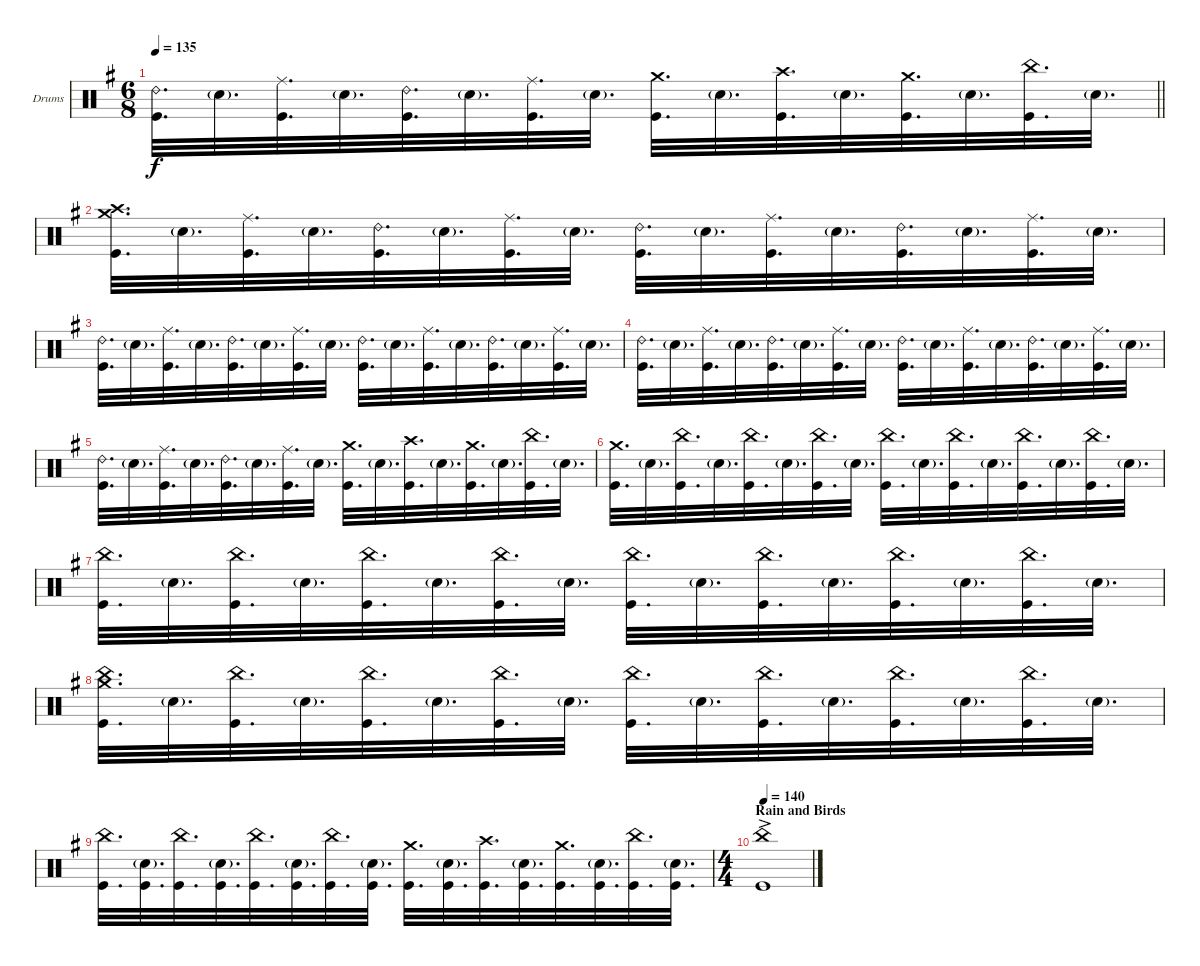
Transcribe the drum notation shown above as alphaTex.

\bracketExtendMode groupsimilarinstruments
\firstSystemTrackNameOrientation horizontal
\otherSystemsTrackNameOrientation horizontal
\track ("Drumkit" "Drums") {instrument percussion}
\staff {score}
\articulation defaults
\ts (6 8)
\tempo 135
\clef neutral
\barLineRight lightlight
\ks eminor
("Kick (hit)" "Ride (bell) 2").32{d dy f} "Snare (hit) 2"{g}.32{d} ("Kick (hit)" "Ride (middle)").32{d} "Snare (hit) 2"{g}.32{d} ("Kick (hit)" "Ride (bell) 2").32{d} "Snare (hit) 2"{g}.32{d} ("Kick (hit)" "Ride (middle)").32{d} "Snare (hit) 2"{g}.32{d} ("Kick (hit)" "Crash medium (hit)").32{d} "Snare (hit) 2"{g}.32{d} ("Kick (hit)" "Crash high (hit)").32{d} "Snare (hit) 2"{g}.32{d} ("Kick (hit)" "Crash medium (hit)").32{d} "Snare (hit) 2"{g}.32{d} ("Kick (hit)" "China (hit)").32{d} "Snare (hit) 2"{g}.32{d} |
("Kick (hit)" "Crash medium (hit)" "Crash high (hit)").32{d} "Snare (hit) 2"{g}.32{d} ("Kick (hit)" "Ride (middle)").32{d} "Snare (hit) 2"{g}.32{d} ("Kick (hit)" "Ride (bell) 2").32{d} "Snare (hit) 2"{g}.32{d} ("Kick (hit)" "Ride (middle)").32{d} "Snare (hit) 2"{g}.32{d} ("Kick (hit)" "Ride (bell) 2").32{d} "Snare (hit) 2"{g}.32{d} ("Kick (hit)" "Ride (middle)").32{d} "Snare (hit) 2"{g}.32{d} ("Kick (hit)" "Ride (bell) 2").32{d} "Snare (hit) 2"{g}.32{d} ("Kick (hit)" "Ride (middle)").32{d} "Snare (hit) 2"{g}.32{d} |
("Kick (hit)" "Ride (bell) 2").32{d} "Snare (hit) 2"{g}.32{d} ("Kick (hit)" "Ride (middle)").32{d} "Snare (hit) 2"{g}.32{d} ("Kick (hit)" "Ride (bell) 2").32{d} "Snare (hit) 2"{g}.32{d} ("Kick (hit)" "Ride (middle)").32{d} "Snare (hit) 2"{g}.32{d} ("Kick (hit)" "Ride (bell) 2").32{d} "Snare (hit) 2"{g}.32{d} ("Kick (hit)" "Ride (middle)").32{d} "Snare (hit) 2"{g}.32{d} ("Kick (hit)" "Ride (bell) 2").32{d} "Snare (hit) 2"{g}.32{d} ("Kick (hit)" "Ride (middle)").32{d} "Snare (hit) 2"{g}.32{d} |
("Kick (hit)" "Ride (bell) 2").32{d} "Snare (hit) 2"{g}.32{d} ("Kick (hit)" "Ride (middle)").32{d} "Snare (hit) 2"{g}.32{d} ("Kick (hit)" "Ride (bell) 2").32{d} "Snare (hit) 2"{g}.32{d} ("Kick (hit)" "Ride (middle)").32{d} "Snare (hit) 2"{g}.32{d} ("Kick (hit)" "Ride (bell) 2").32{d} "Snare (hit) 2"{g}.32{d} ("Kick (hit)" "Ride (middle)").32{d} "Snare (hit) 2"{g}.32{d} ("Kick (hit)" "Ride (bell) 2").32{d} "Snare (hit) 2"{g}.32{d} ("Kick (hit)" "Ride (middle)").32{d} "Snare (hit) 2"{g}.32{d} |
("Kick (hit)" "Ride (bell) 2").32{d} "Snare (hit) 2"{g}.32{d} ("Kick (hit)" "Ride (middle)").32{d} "Snare (hit) 2"{g}.32{d} ("Kick (hit)" "Ride (bell) 2").32{d} "Snare (hit) 2"{g}.32{d} ("Kick (hit)" "Ride (middle)").32{d} "Snare (hit) 2"{g}.32{d} ("Kick (hit)" "Crash medium (hit)").32{d} "Snare (hit) 2"{g}.32{d} ("Kick (hit)" "Crash high (hit)").32{d} "Snare (hit) 2"{g}.32{d} ("Kick (hit)" "Crash medium (hit)").32{d} "Snare (hit) 2"{g}.32{d} ("Kick (hit)" "China (hit)").32{d} "Snare (hit) 2"{g}.32{d} |
("Kick (hit)" "Crash medium (hit)").32{d} "Snare (hit) 2"{g}.32{d} ("Kick (hit)" "China (hit)").32{d} "Snare (hit) 2"{g}.32{d} ("Kick (hit)" "China (hit)").32{d} "Snare (hit) 2"{g}.32{d} ("Kick (hit)" "China (hit)").32{d} "Snare (hit) 2"{g}.32{d} ("Kick (hit)" "China (hit)").32{d} "Snare (hit) 2"{g}.32{d} ("Kick (hit)" "China (hit)").32{d} "Snare (hit) 2"{g}.32{d} ("Kick (hit)" "China (hit)").32{d} "Snare (hit) 2"{g}.32{d} ("Kick (hit)" "China (hit)").32{d} "Snare (hit) 2"{g}.32{d} |
("Kick (hit)" "China (hit)").32{d} "Snare (hit) 2"{g}.32{d} ("Kick (hit)" "China (hit)").32{d} "Snare (hit) 2"{g}.32{d} ("Kick (hit)" "China (hit)").32{d} "Snare (hit) 2"{g}.32{d} ("Kick (hit)" "China (hit)").32{d} "Snare (hit) 2"{g}.32{d} ("Kick (hit)" "China (hit)").32{d} "Snare (hit) 2"{g}.32{d} ("Kick (hit)" "China (hit)").32{d} "Snare (hit) 2"{g}.32{d} ("Kick (hit)" "China (hit)").32{d} "Snare (hit) 2"{g}.32{d} ("Kick (hit)" "China (hit)").32{d} "Snare (hit) 2"{g}.32{d} |
("Kick (hit)" "China (hit)" "Crash medium (hit)").32{d} "Snare (hit) 2"{g}.32{d} ("Kick (hit)" "China (hit)").32{d} "Snare (hit) 2"{g}.32{d} ("Kick (hit)" "China (hit)").32{d} "Snare (hit) 2"{g}.32{d} ("Kick (hit)" "China (hit)").32{d} "Snare (hit) 2"{g}.32{d} ("Kick (hit)" "China (hit)").32{d} "Snare (hit) 2"{g}.32{d} ("Kick (hit)" "China (hit)").32{d} "Snare (hit) 2"{g}.32{d} ("Kick (hit)" "China (hit)").32{d} "Snare (hit) 2"{g}.32{d} ("Kick (hit)" "China (hit)").32{d} "Snare (hit) 2"{g}.32{d} |
("Kick (hit)" "China (hit)").32{d} ("Snare (hit) 2"{g} "Kick (hit)").32{d} ("Kick (hit)" "China (hit)").32{d} ("Snare (hit) 2"{g} "Kick (hit)").32{d} ("Kick (hit)" "China (hit)").32{d} ("Snare (hit) 2"{g} "Kick (hit)").32{d} ("Kick (hit)" "China (hit)").32{d} ("Snare (hit) 2"{g} "Kick (hit)").32{d} ("Kick (hit)" "Crash medium (hit)").32{d} ("Snare (hit) 2"{g} "Kick (hit)").32{d} ("Kick (hit)" "Crash high (hit)").32{d} ("Snare (hit) 2"{g} "Kick (hit)").32{d} ("Kick (hit)" "Crash medium (hit)").32{d} ("Snare (hit) 2"{g} "Kick (hit)").32{d} ("Kick (hit)" "China (hit)").32{d} ("Snare (hit) 2"{g} "Kick (hit)").32{d} |
\ts (4 4)
\section ("" "Rain and Birds")
\tempo 140
("Kick (hit)" "China (hit)"{ac}).1
